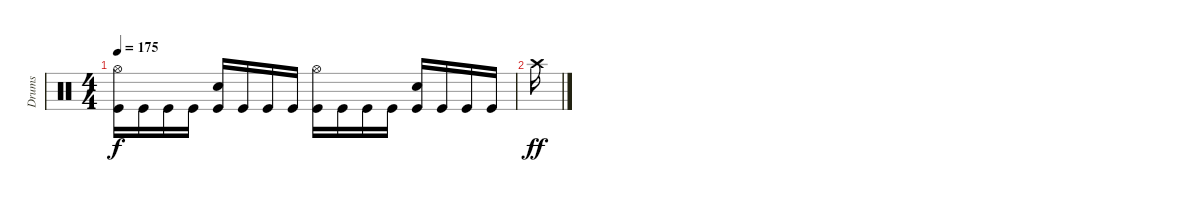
\track ("Drums" "Drums") {instrument percussion}
\staff {score}
\articulation defaults
\ts (4 4)
\tempo 175
\clef neutral
\ks c
("Hi-Hat (open)" "Kick (hit)").16{dy f} "Kick (hit)".16 "Kick (hit)".16 "Kick (hit)".16 ("Snare (hit) 2" "Kick (hit)").16 "Kick (hit)".16 "Kick (hit)".16 "Kick (hit)".16 ("Hi-Hat (open)" "Kick (hit)").16 "Kick (hit)".16 "Kick (hit)".16 "Kick (hit)".16 ("Snare (hit) 2" "Kick (hit)").16 "Kick (hit)".16 "Kick (hit)".16 "Kick (hit)".16 |
"Crash high (hit)".16{dy ff}
